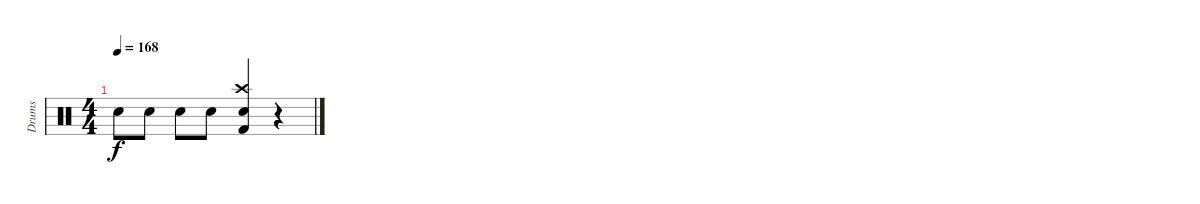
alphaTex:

\track ("Drums" "Drums") {instrument percussion}
\staff {score}
\articulation defaults
\ts (4 4)
\tempo 168
\clef neutral
\ks c "Electric Snare (hit)".8{dy f} "Electric Snare (hit)".8 "Electric Snare (hit)".8 "Electric Snare (hit)".8
("Crash high (hit)" "Electric Snare (hit)" "Kick (hit) 2").4 r.4
